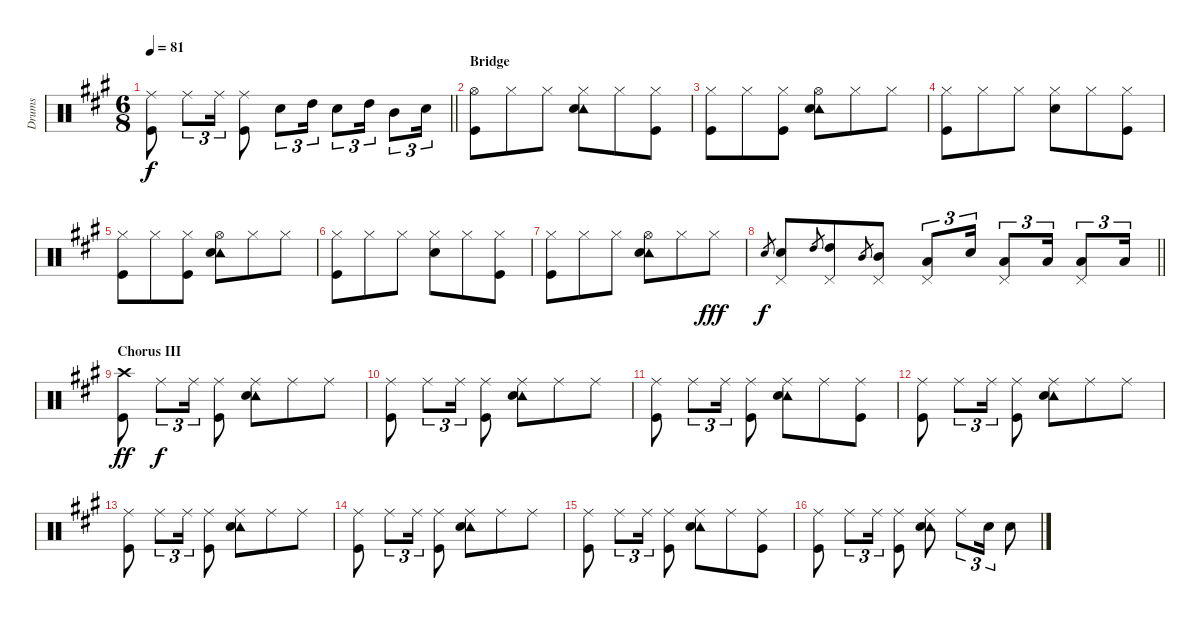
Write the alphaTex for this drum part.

\track ("Drums" "Drums") {instrument percussion}
\staff {score}
\articulation defaults
\ts (6 8)
\tempo 81
\clef neutral
\barLineRight lightlight
\ks a
("Ride (middle)" "Kick (hit)").8{dy f} "Ride (middle)".8{tu (3 2)} "Ride (middle)".16{tu (3 2)} ("Ride (middle)" "Kick (hit)").8 "Snare (hit) 2".8{tu (3 2)} "High Tom (hit)".16{tu (3 2)} "Snare (hit) 2".8{tu (3 2)} "High Tom (hit)".16{tu (3 2)} "Mid Tom (hit)".8{tu (3 2)} "Snare (hit) 2".16{tu (3 2)} |
\section ("" "Bridge")
("Hi-Hat (open)" "Kick (hit)").8 "Hi-Hat (closed)".8 "Hi-Hat (closed)".8 ("Hi-Hat (closed)" "Tambourine (hit)" "Snare (hit) 2").8 "Hi-Hat (closed)".8 ("Hi-Hat (closed)" "Kick (hit)").8 |
("Hi-Hat (closed)" "Kick (hit)").8 "Hi-Hat (closed)".8 ("Hi-Hat (closed)" "Kick (hit)").8 ("Hi-Hat (open)" "Tambourine (hit)" "Snare (hit) 2").8 "Hi-Hat (closed)".8 "Hi-Hat (closed)".8 |
("Hi-Hat (closed)" "Kick (hit)").8 "Hi-Hat (closed)".8 "Hi-Hat (closed)".8 ("Hi-Hat (closed)" "Snare (hit) 2").8 "Hi-Hat (closed)".8 ("Hi-Hat (closed)" "Kick (hit)").8 |
("Hi-Hat (closed)" "Kick (hit)").8 "Hi-Hat (closed)".8 ("Hi-Hat (closed)" "Kick (hit)").8 ("Hi-Hat (open)" "Tambourine (hit)" "Snare (hit) 2").8 "Hi-Hat (closed)".8 "Hi-Hat (closed)".8 |
("Hi-Hat (closed)" "Kick (hit)").8 "Hi-Hat (closed)".8 "Hi-Hat (closed)".8 ("Hi-Hat (closed)" "Snare (hit) 2").8 "Hi-Hat (closed)".8 ("Hi-Hat (closed)" "Kick (hit)").8 |
("Hi-Hat (closed)" "Kick (hit)").8 "Hi-Hat (closed)".8 "Hi-Hat (closed)".8 ("Hi-Hat (open)" "Tambourine (hit)" "Snare (hit) 2").8 "Hi-Hat (closed)".8 "Hi-Hat (closed)".8{dy fff} |
\barLineRight lightlight "Snare (hit) 2".8{gr dy f}
("Pedal Hi-Hat (hit)" "Snare (hit) 2").8 "High Tom (hit)".8{gr} ("Pedal Hi-Hat (hit)" "High Tom (hit)").8 "Mid Tom (hit)".8{gr} ("Pedal Hi-Hat (hit)" "Mid Tom (hit)").8 ("Pedal Hi-Hat (hit)" "Low Tom (hit)").8{tu (3 2)} "Snare (hit) 2".16{tu (3 2)} ("Pedal Hi-Hat (hit)" "Low Tom (hit)").8{tu (3 2)} "Low Tom (hit)".16{tu (3 2)} ("Pedal Hi-Hat (hit)" "Low Floor Tom (hit)").8{tu (3 2)} "Low Floor Tom (hit)".16{tu (3 2)} |
\section ("" "Chorus III")
("Crash high (hit)" "Kick (hit)").8{dy ff} "Ride (middle)".8{tu (3 2) dy f} "Ride (middle)".16{tu (3 2)} ("Ride (middle)" "Kick (hit)").8 ("Ride (middle)" "Tambourine (hit)" "Snare (hit) 2").8 "Ride (middle)".8 "Ride (middle)".8 |
("Ride (middle)" "Kick (hit)").8 "Ride (middle)".8{tu (3 2)} "Ride (middle)".16{tu (3 2)} ("Ride (middle)" "Kick (hit)").8 ("Ride (middle)" "Tambourine (hit)" "Snare (hit) 2").8 "Ride (middle)".8 "Ride (middle)".8 |
("Ride (middle)" "Kick (hit)").8 "Ride (middle)".8{tu (3 2)} "Ride (middle)".16{tu (3 2)} ("Ride (middle)" "Kick (hit)").8 ("Ride (middle)" "Tambourine (hit)" "Snare (hit) 2").8 "Ride (middle)".8 ("Ride (middle)" "Kick (hit)").8 |
("Ride (middle)" "Kick (hit)").8 "Ride (middle)".8{tu (3 2)} "Ride (middle)".16{tu (3 2)} ("Ride (middle)" "Kick (hit)").8 ("Ride (middle)" "Tambourine (hit)" "Snare (hit) 2").8 "Ride (middle)".8 "Ride (middle)".8 |
("Ride (middle)" "Kick (hit)").8 "Ride (middle)".8{tu (3 2)} "Ride (middle)".16{tu (3 2)} ("Ride (middle)" "Kick (hit)").8 ("Ride (middle)" "Tambourine (hit)" "Snare (hit) 2").8 "Ride (middle)".8 "Ride (middle)".8 |
("Ride (middle)" "Kick (hit)").8 "Ride (middle)".8{tu (3 2)} "Ride (middle)".16{tu (3 2)} ("Ride (middle)" "Kick (hit)").8 ("Ride (middle)" "Tambourine (hit)" "Snare (hit) 2").8 "Ride (middle)".8 "Ride (middle)".8 |
("Ride (middle)" "Kick (hit)").8 "Ride (middle)".8{tu (3 2)} "Ride (middle)".16{tu (3 2)} ("Ride (middle)" "Kick (hit)").8 ("Ride (middle)" "Tambourine (hit)" "Snare (hit) 2").8 "Ride (middle)".8 ("Ride (middle)" "Kick (hit)").8 |
("Ride (middle)" "Kick (hit)").8 "Ride (middle)".8{tu (3 2)} "Ride (middle)".16{tu (3 2)} ("Ride (middle)" "Kick (hit)").8 ("Ride (middle)" "Tambourine (hit)" "Snare (hit) 2").8 "Ride (middle)".8{tu (3 2)} "Snare (hit) 2".16{tu (3 2)} "Snare (hit) 2".8
